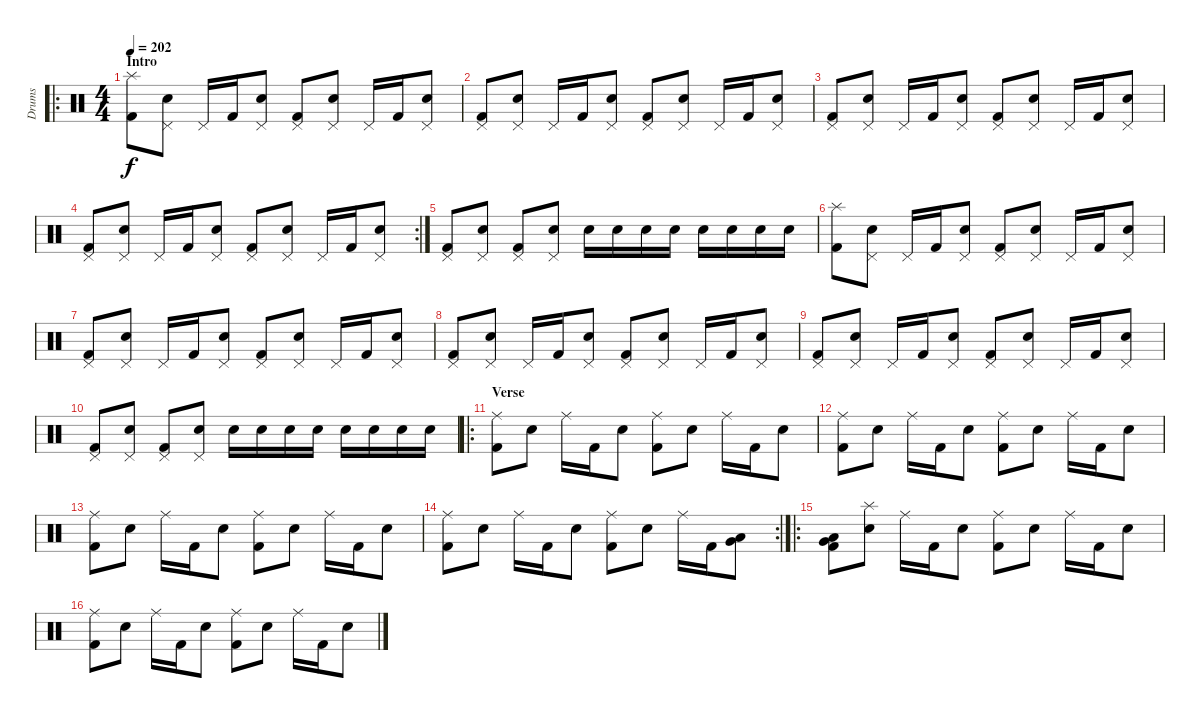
\track ("Drums" "Drums") {instrument percussion}
\staff {score}
\articulation defaults
\ro
\ts (4 4)
\section ("" "Intro")
\tempo 202
\clef neutral
\ks c
("Splash (hit)" "Kick (hit) 2").8{dy f} ("Pedal Hi-Hat (hit)" "Electric Snare (hit)").8 "Pedal Hi-Hat (hit)".16 "Kick (hit) 2".16 ("Pedal Hi-Hat (hit)" "Electric Snare (hit)").8 ("Pedal Hi-Hat (hit)" "Kick (hit) 2").8 ("Pedal Hi-Hat (hit)" "Electric Snare (hit)").8 "Pedal Hi-Hat (hit)".16 "Kick (hit) 2".16 ("Pedal Hi-Hat (hit)" "Electric Snare (hit)").8 |
("Pedal Hi-Hat (hit)" "Kick (hit) 2").8 ("Pedal Hi-Hat (hit)" "Electric Snare (hit)").8 "Pedal Hi-Hat (hit)".16 "Kick (hit) 2".16 ("Pedal Hi-Hat (hit)" "Electric Snare (hit)").8 ("Pedal Hi-Hat (hit)" "Kick (hit) 2").8 ("Pedal Hi-Hat (hit)" "Electric Snare (hit)").8 "Pedal Hi-Hat (hit)".16 "Kick (hit) 2".16 ("Pedal Hi-Hat (hit)" "Electric Snare (hit)").8 |
("Pedal Hi-Hat (hit)" "Kick (hit) 2").8 ("Pedal Hi-Hat (hit)" "Electric Snare (hit)").8 "Pedal Hi-Hat (hit)".16 "Kick (hit) 2".16 ("Pedal Hi-Hat (hit)" "Electric Snare (hit)").8 ("Pedal Hi-Hat (hit)" "Kick (hit) 2").8 ("Pedal Hi-Hat (hit)" "Electric Snare (hit)").8 "Pedal Hi-Hat (hit)".16 "Kick (hit) 2".16 ("Pedal Hi-Hat (hit)" "Electric Snare (hit)").8 |
\rc 2
("Pedal Hi-Hat (hit)" "Kick (hit) 2").8 ("Pedal Hi-Hat (hit)" "Electric Snare (hit)").8 "Pedal Hi-Hat (hit)".16 "Kick (hit) 2".16 ("Pedal Hi-Hat (hit)" "Electric Snare (hit)").8 ("Pedal Hi-Hat (hit)" "Kick (hit) 2").8 ("Pedal Hi-Hat (hit)" "Electric Snare (hit)").8 "Pedal Hi-Hat (hit)".16 "Kick (hit) 2".16 ("Pedal Hi-Hat (hit)" "Electric Snare (hit)").8 |
("Pedal Hi-Hat (hit)" "Kick (hit) 2").8 ("Pedal Hi-Hat (hit)" "Electric Snare (hit)").8 ("Pedal Hi-Hat (hit)" "Kick (hit) 2").8 ("Pedal Hi-Hat (hit)" "Electric Snare (hit)").8 "Electric Snare (hit)".16 "Electric Snare (hit)".16 "Electric Snare (hit)".16 "Electric Snare (hit)".16 "Electric Snare (hit)".16 "Electric Snare (hit)".16 "Electric Snare (hit)".16 "Electric Snare (hit)".16 |
("Splash (hit)" "Kick (hit) 2").8 ("Pedal Hi-Hat (hit)" "Electric Snare (hit)").8 "Pedal Hi-Hat (hit)".16 "Kick (hit) 2".16 ("Pedal Hi-Hat (hit)" "Electric Snare (hit)").8 ("Pedal Hi-Hat (hit)" "Kick (hit) 2").8 ("Pedal Hi-Hat (hit)" "Electric Snare (hit)").8 "Pedal Hi-Hat (hit)".16 "Kick (hit) 2".16 ("Pedal Hi-Hat (hit)" "Electric Snare (hit)").8 |
("Pedal Hi-Hat (hit)" "Kick (hit) 2").8 ("Pedal Hi-Hat (hit)" "Electric Snare (hit)").8 "Pedal Hi-Hat (hit)".16 "Kick (hit) 2".16 ("Pedal Hi-Hat (hit)" "Electric Snare (hit)").8 ("Pedal Hi-Hat (hit)" "Kick (hit) 2").8 ("Pedal Hi-Hat (hit)" "Electric Snare (hit)").8 "Pedal Hi-Hat (hit)".16 "Kick (hit) 2".16 ("Pedal Hi-Hat (hit)" "Electric Snare (hit)").8 |
("Pedal Hi-Hat (hit)" "Kick (hit) 2").8 ("Pedal Hi-Hat (hit)" "Electric Snare (hit)").8 "Pedal Hi-Hat (hit)".16 "Kick (hit) 2".16 ("Pedal Hi-Hat (hit)" "Electric Snare (hit)").8 ("Pedal Hi-Hat (hit)" "Kick (hit) 2").8 ("Pedal Hi-Hat (hit)" "Electric Snare (hit)").8 "Pedal Hi-Hat (hit)".16 "Kick (hit) 2".16 ("Pedal Hi-Hat (hit)" "Electric Snare (hit)").8 |
("Pedal Hi-Hat (hit)" "Kick (hit) 2").8 ("Pedal Hi-Hat (hit)" "Electric Snare (hit)").8 "Pedal Hi-Hat (hit)".16 "Kick (hit) 2".16 ("Pedal Hi-Hat (hit)" "Electric Snare (hit)").8 ("Pedal Hi-Hat (hit)" "Kick (hit) 2").8 ("Pedal Hi-Hat (hit)" "Electric Snare (hit)").8 "Pedal Hi-Hat (hit)".16 "Kick (hit) 2".16 ("Pedal Hi-Hat (hit)" "Electric Snare (hit)").8 |
("Pedal Hi-Hat (hit)" "Kick (hit) 2").8 ("Pedal Hi-Hat (hit)" "Electric Snare (hit)").8 ("Pedal Hi-Hat (hit)" "Kick (hit) 2").8 ("Pedal Hi-Hat (hit)" "Electric Snare (hit)").8 "Electric Snare (hit)".16 "Electric Snare (hit)".16 "Electric Snare (hit)".16 "Electric Snare (hit)".16 "Electric Snare (hit)".16 "Electric Snare (hit)".16 "Electric Snare (hit)".16 "Electric Snare (hit)".16 |
\ro
\section ("" "Verse")
("Ride (middle)" "Kick (hit) 2").8 "Electric Snare (hit)".8 "Ride (middle)".16 "Kick (hit) 2".16 "Electric Snare (hit)".8 ("Ride (middle)" "Kick (hit) 2").8 "Electric Snare (hit)".8 "Ride (middle)".16 "Kick (hit) 2".16 "Electric Snare (hit)".8 |
("Ride (middle)" "Kick (hit) 2").8 "Electric Snare (hit)".8 "Ride (middle)".16 "Kick (hit) 2".16 "Electric Snare (hit)".8 ("Ride (middle)" "Kick (hit) 2").8 "Electric Snare (hit)".8 "Ride (middle)".16 "Kick (hit) 2".16 "Electric Snare (hit)".8 |
("Ride (middle)" "Kick (hit) 2").8 "Electric Snare (hit)".8 "Ride (middle)".16 "Kick (hit) 2".16 "Electric Snare (hit)".8 ("Ride (middle)" "Kick (hit) 2").8 "Electric Snare (hit)".8 "Ride (middle)".16 "Kick (hit) 2".16 "Electric Snare (hit)".8 |
\rc 2
("Ride (middle)" "Kick (hit) 2").8 "Electric Snare (hit)".8 "Ride (middle)".16 "Kick (hit) 2".16 "Electric Snare (hit)".8 ("Ride (middle)" "Kick (hit) 2").8 "Electric Snare (hit)".8 "Ride (middle)".16 "Kick (hit) 2".16 ("Low Tom (hit)" "Very Low Tom (hit)").8 |
\ro
("Low Tom (hit)" "Very Low Tom (hit)" "Kick (hit) 2").8 ("Splash (hit)" "Electric Snare (hit)").8 "Ride (middle)".16 "Kick (hit) 2".16 "Electric Snare (hit)".8 ("Ride (middle)" "Kick (hit) 2").8 "Electric Snare (hit)".8 "Ride (middle)".16 "Kick (hit) 2".16 "Electric Snare (hit)".8 |
("Ride (middle)" "Kick (hit) 2").8 "Electric Snare (hit)".8 "Ride (middle)".16 "Kick (hit) 2".16 "Electric Snare (hit)".8 ("Ride (middle)" "Kick (hit) 2").8 "Electric Snare (hit)".8 "Ride (middle)".16 "Kick (hit) 2".16 "Electric Snare (hit)".8
